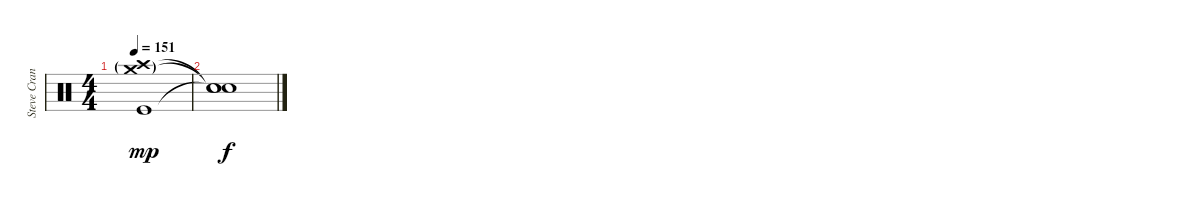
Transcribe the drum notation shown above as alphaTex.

\track ("Steve Crane" "Steve Cran") {instrument percussion}
\staff {score}
\articulation defaults
\ts (4 4)
\tempo 151
\clef neutral
\ks c
("Crash high (hit)"{g} "Crash medium (hit)"{g} "Kick (hit)").1{dy mp} |
("Snare (hit)"{t} "Snare (hit)"{t} "Snare (hit)"{t}).1{dy f}
